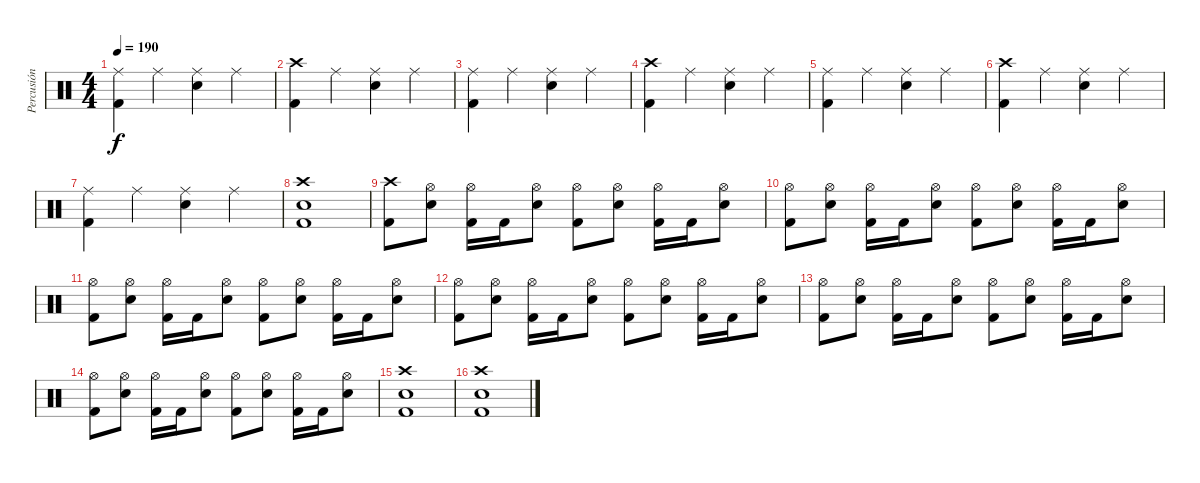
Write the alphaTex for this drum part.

\track ("Percusión" "Percusión") {instrument percussion}
\staff {score}
\articulation defaults
\ts (4 4)
\tempo 190
\clef neutral
\ks c
("Kick (hit) 2" "Ride (middle)").4{dy f} "Ride (middle)".4 ("Snare (hit) 2" "Ride (middle)").4 "Ride (middle)".4 |
("Kick (hit) 2" "Crash high (hit)").4 "Ride (middle)".4 ("Snare (hit) 2" "Ride (middle)").4 "Ride (middle)".4 |
("Kick (hit) 2" "Ride (middle)").4 "Ride (middle)".4 ("Snare (hit) 2" "Ride (middle)").4 "Ride (middle)".4 |
("Kick (hit) 2" "Crash high (hit)").4 "Ride (middle)".4 ("Snare (hit) 2" "Ride (middle)").4 "Ride (middle)".4 |
("Kick (hit) 2" "Ride (middle)").4 "Ride (middle)".4 ("Snare (hit) 2" "Ride (middle)").4 "Ride (middle)".4 |
("Kick (hit) 2" "Crash high (hit)").4 "Ride (middle)".4 ("Snare (hit) 2" "Ride (middle)").4 "Ride (middle)".4 |
("Kick (hit) 2" "Ride (middle)").4 "Ride (middle)".4 ("Snare (hit) 2" "Ride (middle)").4 "Ride (middle)".4 |
("Kick (hit) 2" "Snare (hit) 2" "Crash high (hit)").1 |
("Kick (hit) 2" "Crash high (hit)").8 ("Snare (hit) 2" "Hi-Hat (open)").8 ("Kick (hit) 2" "Hi-Hat (open)").16 "Kick (hit) 2".16 ("Snare (hit) 2" "Hi-Hat (open)").8 ("Kick (hit) 2" "Hi-Hat (open)").8 ("Snare (hit) 2" "Hi-Hat (open)").8 ("Kick (hit) 2" "Hi-Hat (open)").16 "Kick (hit) 2".16 ("Snare (hit) 2" "Hi-Hat (open)").8 |
("Kick (hit) 2" "Hi-Hat (open)").8 ("Snare (hit) 2" "Hi-Hat (open)").8 ("Kick (hit) 2" "Hi-Hat (open)").16 "Kick (hit) 2".16 ("Snare (hit) 2" "Hi-Hat (open)").8 ("Kick (hit) 2" "Hi-Hat (open)").8 ("Snare (hit) 2" "Hi-Hat (open)").8 ("Kick (hit) 2" "Hi-Hat (open)").16 "Kick (hit) 2".16 ("Snare (hit) 2" "Hi-Hat (open)").8 |
("Kick (hit) 2" "Hi-Hat (open)").8 ("Snare (hit) 2" "Hi-Hat (open)").8 ("Kick (hit) 2" "Hi-Hat (open)").16 "Kick (hit) 2".16 ("Snare (hit) 2" "Hi-Hat (open)").8 ("Kick (hit) 2" "Hi-Hat (open)").8 ("Snare (hit) 2" "Hi-Hat (open)").8 ("Kick (hit) 2" "Hi-Hat (open)").16 "Kick (hit) 2".16 ("Snare (hit) 2" "Hi-Hat (open)").8 |
("Kick (hit) 2" "Hi-Hat (open)").8 ("Snare (hit) 2" "Hi-Hat (open)").8 ("Kick (hit) 2" "Hi-Hat (open)").16 "Kick (hit) 2".16 ("Snare (hit) 2" "Hi-Hat (open)").8 ("Kick (hit) 2" "Hi-Hat (open)").8 ("Snare (hit) 2" "Hi-Hat (open)").8 ("Kick (hit) 2" "Hi-Hat (open)").16 "Kick (hit) 2".16 ("Snare (hit) 2" "Hi-Hat (open)").8 |
("Kick (hit) 2" "Hi-Hat (open)").8 ("Snare (hit) 2" "Hi-Hat (open)").8 ("Kick (hit) 2" "Hi-Hat (open)").16 "Kick (hit) 2".16 ("Snare (hit) 2" "Hi-Hat (open)").8 ("Kick (hit) 2" "Hi-Hat (open)").8 ("Snare (hit) 2" "Hi-Hat (open)").8 ("Kick (hit) 2" "Hi-Hat (open)").16 "Kick (hit) 2".16 ("Snare (hit) 2" "Hi-Hat (open)").8 |
("Kick (hit) 2" "Hi-Hat (open)").8 ("Snare (hit) 2" "Hi-Hat (open)").8 ("Kick (hit) 2" "Hi-Hat (open)").16 "Kick (hit) 2".16 ("Snare (hit) 2" "Hi-Hat (open)").8 ("Kick (hit) 2" "Hi-Hat (open)").8 ("Snare (hit) 2" "Hi-Hat (open)").8 ("Kick (hit) 2" "Hi-Hat (open)").16 "Kick (hit) 2".16 ("Snare (hit) 2" "Hi-Hat (open)").8 |
("Kick (hit) 2" "Snare (hit) 2" "Crash high (hit)").1 |
("Kick (hit) 2" "Snare (hit) 2" "Crash high (hit)").1
